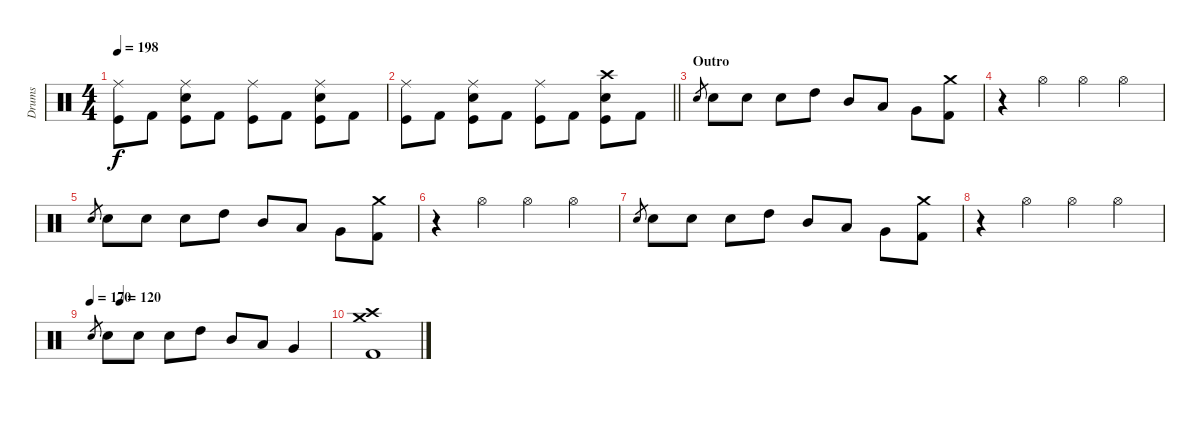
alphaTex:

\track ("Drums" "Drums") {instrument percussion}
\staff {score}
\articulation defaults
\ts (4 4)
\tempo 198
\clef neutral
\ks c
("Ride (middle)" "Kick (hit)").8{dy f} "Kick (hit) 2".8 ("Ride (middle)" "Electric Snare (hit)" "Kick (hit)").8 "Kick (hit) 2".8 ("Ride (middle)" "Kick (hit)").8 "Kick (hit) 2".8 ("Ride (middle)" "Electric Snare (hit)" "Kick (hit)").8 "Kick (hit) 2".8 |
\barLineRight lightlight
("Ride (middle)" "Kick (hit)").8 "Kick (hit) 2".8 ("Ride (middle)" "Electric Snare (hit)" "Kick (hit)").8 "Kick (hit) 2".8 ("Ride (middle)" "Kick (hit)").8 "Kick (hit) 2".8 ("Crash high (hit)" "Electric Snare (hit)" "Kick (hit)").8 "Kick (hit) 2".8 |
\section ("" "Outro")
"Electric Snare (hit)".8{gr} "Electric Snare (hit)".8 "Electric Snare (hit)".8 "Electric Snare (hit)".8 "High Tom (hit)".8 "Mid Tom (hit)".8 "Low Tom (hit)".8 "Very Low Tom (hit)".8 ("Crash medium (hit)" "Kick (hit) 2").8 |
r.4 "Hi-Hat (open)".4 "Hi-Hat (open)".4 "Hi-Hat (open)".4 |
"Electric Snare (hit)".8{gr} "Electric Snare (hit)".8 "Electric Snare (hit)".8 "Electric Snare (hit)".8 "High Tom (hit)".8 "Mid Tom (hit)".8 "Low Tom (hit)".8 "Very Low Tom (hit)".8 ("Crash medium (hit)" "Kick (hit) 2").8 |
r.4 "Hi-Hat (open)".4 "Hi-Hat (open)".4 "Hi-Hat (open)".4 |
"Electric Snare (hit)".8{gr} "Electric Snare (hit)".8 "Electric Snare (hit)".8 "Electric Snare (hit)".8 "High Tom (hit)".8 "Mid Tom (hit)".8 "Low Tom (hit)".8 "Very Low Tom (hit)".8 ("Crash medium (hit)" "Kick (hit) 2").8 |
r.4 "Hi-Hat (open)".4 "Hi-Hat (open)".4 "Hi-Hat (open)".4 |
\tempo 170
\tempo (120 0.125)
"Electric Snare (hit)".8{gr} "Electric Snare (hit)".8 "Electric Snare (hit)".8 "Electric Snare (hit)".8 "High Tom (hit)".8 "Mid Tom (hit)".8 "Low Tom (hit)".8 "Very Low Tom (hit)".4 |
("Crash medium (hit)" "Crash high (hit)" "Kick (hit) 2").1
